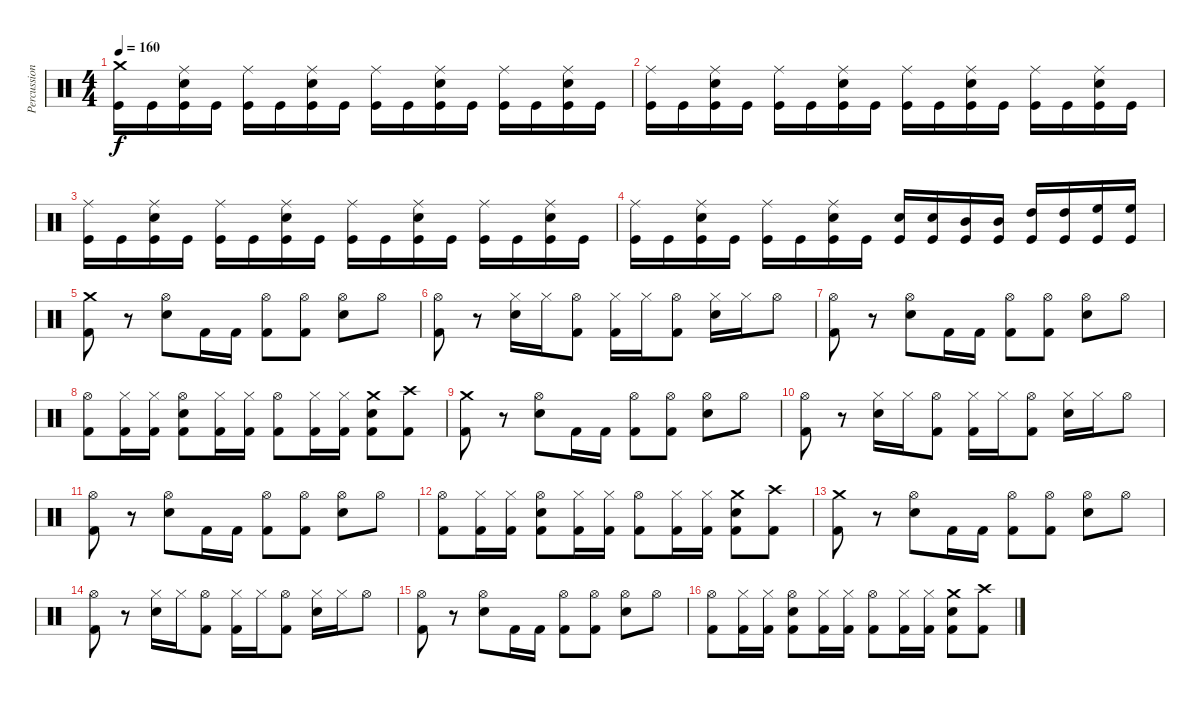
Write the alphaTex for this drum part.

\track ("Percussions" "Percussion") {instrument percussion}
\staff {score}
\articulation defaults
\ts (4 4)
\tempo 160
\clef neutral
\ks c
("Kick (hit)" "Crash medium (hit)").16{dy f} "Kick (hit)".16 ("Kick (hit)" "Snare (hit) 2" "Ride (middle)").16 "Kick (hit)".16 ("Kick (hit)" "Ride (middle)").16 "Kick (hit)".16 ("Kick (hit)" "Snare (hit) 2" "Ride (middle)").16 "Kick (hit)".16 ("Kick (hit)" "Ride (middle)").16 "Kick (hit)".16 ("Kick (hit)" "Snare (hit) 2" "Ride (middle)").16 "Kick (hit)".16 ("Kick (hit)" "Ride (middle)").16 "Kick (hit)".16 ("Kick (hit)" "Snare (hit) 2" "Ride (middle)").16 "Kick (hit)".16 |
("Kick (hit)" "Ride (middle)").16 "Kick (hit)".16 ("Kick (hit)" "Snare (hit) 2" "Ride (middle)").16 "Kick (hit)".16 ("Kick (hit)" "Ride (middle)").16 "Kick (hit)".16 ("Kick (hit)" "Snare (hit) 2" "Ride (middle)").16 "Kick (hit)".16 ("Kick (hit)" "Ride (middle)").16 "Kick (hit)".16 ("Kick (hit)" "Snare (hit) 2" "Ride (middle)").16 "Kick (hit)".16 ("Kick (hit)" "Ride (middle)").16 "Kick (hit)".16 ("Kick (hit)" "Snare (hit) 2" "Ride (middle)").16 "Kick (hit)".16 |
("Kick (hit)" "Ride (middle)").16 "Kick (hit)".16 ("Kick (hit)" "Snare (hit) 2" "Ride (middle)").16 "Kick (hit)".16 ("Kick (hit)" "Ride (middle)").16 "Kick (hit)".16 ("Kick (hit)" "Snare (hit) 2" "Ride (middle)").16 "Kick (hit)".16 ("Kick (hit)" "Ride (middle)").16 "Kick (hit)".16 ("Kick (hit)" "Snare (hit) 2" "Ride (middle)").16 "Kick (hit)".16 ("Kick (hit)" "Ride (middle)").16 "Kick (hit)".16 ("Kick (hit)" "Snare (hit) 2" "Ride (middle)").16 "Kick (hit)".16 |
("Kick (hit)" "Ride (middle)").16 "Kick (hit)".16 ("Kick (hit)" "Snare (hit) 2" "Ride (middle)").16 "Kick (hit)".16 ("Kick (hit)" "Ride (middle)").16 "Kick (hit)".16 ("Kick (hit)" "Snare (hit) 2" "Ride (middle)").16 "Kick (hit)".16 ("Kick (hit)" "Snare (hit) 2").16 ("Kick (hit)" "Snare (hit) 2").16 ("Kick (hit)" "Mid Tom (hit)").16 ("Kick (hit)" "Mid Tom (hit)").16 ("Kick (hit)" "High Tom (hit)").16 ("Kick (hit)" "High Tom (hit)").16 ("Kick (hit)" "High Floor Tom (hit)").16 ("Kick (hit)" "High Floor Tom (hit)").16 |
("Kick (hit) 2" "Crash medium (hit)").8 r.8 ("Electric Snare (hit)" "Hi-Hat (open)").8 "Kick (hit) 2".16 "Kick (hit) 2".16 ("Kick (hit) 2" "Hi-Hat (open)").8 ("Kick (hit) 2" "Hi-Hat (open)").8 ("Electric Snare (hit)" "Hi-Hat (open)").8 "Hi-Hat (open)".8 |
("Kick (hit) 2" "Hi-Hat (open)").8 r.8 ("Electric Snare (hit)" "Hi-Hat (closed)").16 "Hi-Hat (closed)".16 ("Kick (hit) 2" "Hi-Hat (open)").8 ("Kick (hit) 2" "Hi-Hat (closed)").16 "Hi-Hat (closed)".16 ("Kick (hit) 2" "Hi-Hat (open)").8 ("Electric Snare (hit)" "Hi-Hat (closed)").16 "Hi-Hat (closed)".16 "Hi-Hat (open)".8 |
("Kick (hit) 2" "Hi-Hat (open)").8 r.8 ("Electric Snare (hit)" "Hi-Hat (open)").8 "Kick (hit) 2".16 "Kick (hit) 2".16 ("Kick (hit) 2" "Hi-Hat (open)").8 ("Kick (hit) 2" "Hi-Hat (open)").8 ("Electric Snare (hit)" "Hi-Hat (open)").8 "Hi-Hat (open)".8 |
("Kick (hit) 2" "Hi-Hat (open)").8 ("Kick (hit) 2" "Hi-Hat (closed)").16 ("Kick (hit) 2" "Hi-Hat (closed)").16 ("Kick (hit) 2" "Electric Snare (hit)" "Hi-Hat (open)").8 ("Kick (hit) 2" "Hi-Hat (closed)").16 ("Kick (hit) 2" "Hi-Hat (closed)").16 ("Kick (hit) 2" "Hi-Hat (open)").8 ("Kick (hit) 2" "Hi-Hat (closed)").16 ("Kick (hit) 2" "Hi-Hat (closed)").16 ("Kick (hit) 2" "Electric Snare (hit)" "Crash medium (hit)").8 ("Kick (hit) 2" "Crash high (hit)").8 |
("Kick (hit) 2" "Crash medium (hit)").8 r.8 ("Electric Snare (hit)" "Hi-Hat (open)").8 "Kick (hit) 2".16 "Kick (hit) 2".16 ("Kick (hit) 2" "Hi-Hat (open)").8 ("Kick (hit) 2" "Hi-Hat (open)").8 ("Electric Snare (hit)" "Hi-Hat (open)").8 "Hi-Hat (open)".8 |
("Kick (hit) 2" "Hi-Hat (open)").8 r.8 ("Electric Snare (hit)" "Hi-Hat (closed)").16 "Hi-Hat (closed)".16 ("Kick (hit) 2" "Hi-Hat (open)").8 ("Kick (hit) 2" "Hi-Hat (closed)").16 "Hi-Hat (closed)".16 ("Kick (hit) 2" "Hi-Hat (open)").8 ("Electric Snare (hit)" "Hi-Hat (closed)").16 "Hi-Hat (closed)".16 "Hi-Hat (open)".8 |
("Kick (hit) 2" "Hi-Hat (open)").8 r.8 ("Electric Snare (hit)" "Hi-Hat (open)").8 "Kick (hit) 2".16 "Kick (hit) 2".16 ("Kick (hit) 2" "Hi-Hat (open)").8 ("Kick (hit) 2" "Hi-Hat (open)").8 ("Electric Snare (hit)" "Hi-Hat (open)").8 "Hi-Hat (open)".8 |
("Kick (hit) 2" "Hi-Hat (open)").8 ("Kick (hit) 2" "Hi-Hat (closed)").16 ("Kick (hit) 2" "Hi-Hat (closed)").16 ("Kick (hit) 2" "Electric Snare (hit)" "Hi-Hat (open)").8 ("Kick (hit) 2" "Hi-Hat (closed)").16 ("Kick (hit) 2" "Hi-Hat (closed)").16 ("Kick (hit) 2" "Hi-Hat (open)").8 ("Kick (hit) 2" "Hi-Hat (closed)").16 ("Kick (hit) 2" "Hi-Hat (closed)").16 ("Kick (hit) 2" "Electric Snare (hit)" "Crash medium (hit)").8 ("Kick (hit) 2" "Crash high (hit)").8 |
("Kick (hit) 2" "Crash medium (hit)").8 r.8 ("Electric Snare (hit)" "Hi-Hat (open)").8 "Kick (hit) 2".16 "Kick (hit) 2".16 ("Kick (hit) 2" "Hi-Hat (open)").8 ("Kick (hit) 2" "Hi-Hat (open)").8 ("Electric Snare (hit)" "Hi-Hat (open)").8 "Hi-Hat (open)".8 |
("Kick (hit) 2" "Hi-Hat (open)").8 r.8 ("Electric Snare (hit)" "Hi-Hat (closed)").16 "Hi-Hat (closed)".16 ("Kick (hit) 2" "Hi-Hat (open)").8 ("Kick (hit) 2" "Hi-Hat (closed)").16 "Hi-Hat (closed)".16 ("Kick (hit) 2" "Hi-Hat (open)").8 ("Electric Snare (hit)" "Hi-Hat (closed)").16 "Hi-Hat (closed)".16 "Hi-Hat (open)".8 |
("Kick (hit) 2" "Hi-Hat (open)").8 r.8 ("Electric Snare (hit)" "Hi-Hat (open)").8 "Kick (hit) 2".16 "Kick (hit) 2".16 ("Kick (hit) 2" "Hi-Hat (open)").8 ("Kick (hit) 2" "Hi-Hat (open)").8 ("Electric Snare (hit)" "Hi-Hat (open)").8 "Hi-Hat (open)".8 |
("Kick (hit) 2" "Hi-Hat (open)").8 ("Kick (hit) 2" "Hi-Hat (closed)").16 ("Kick (hit) 2" "Hi-Hat (closed)").16 ("Kick (hit) 2" "Electric Snare (hit)" "Hi-Hat (open)").8 ("Kick (hit) 2" "Hi-Hat (closed)").16 ("Kick (hit) 2" "Hi-Hat (closed)").16 ("Kick (hit) 2" "Hi-Hat (open)").8 ("Kick (hit) 2" "Hi-Hat (closed)").16 ("Kick (hit) 2" "Hi-Hat (closed)").16 ("Kick (hit) 2" "Electric Snare (hit)" "Crash medium (hit)").8 ("Kick (hit) 2" "Crash high (hit)").8
